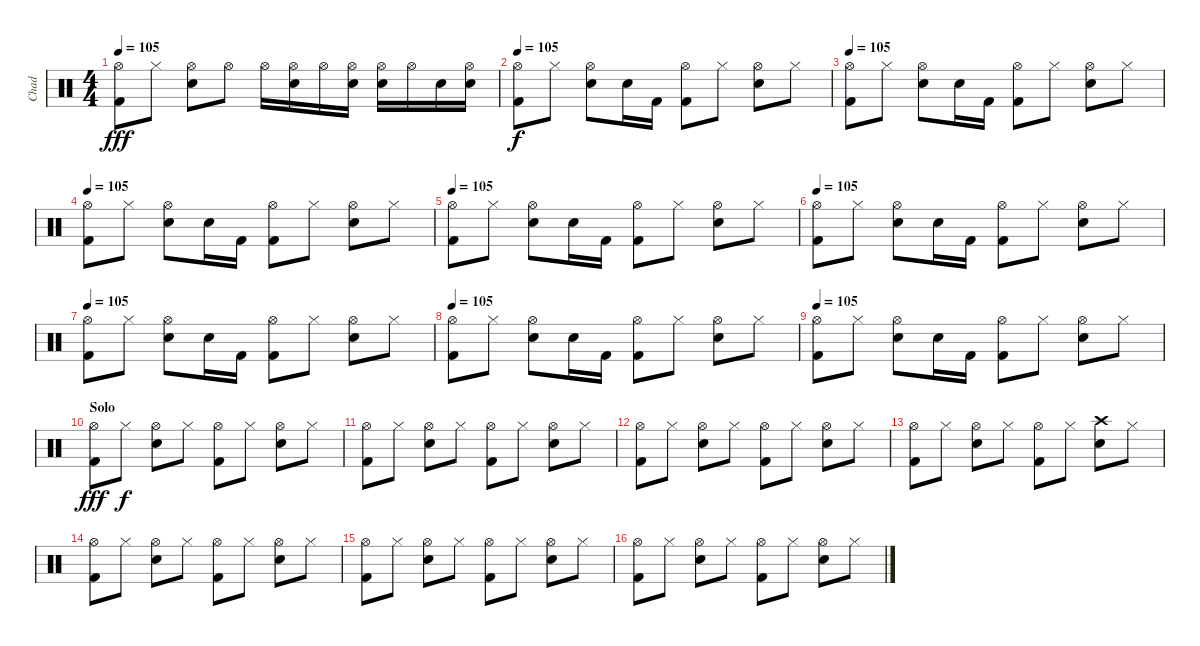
\track ("Chad" "Chad") {instrument percussion}
\staff {score}
\articulation defaults
\ts (4 4)
\tempo 105
\clef neutral
\ks c
("Hi-Hat (open)" "Kick (hit) 2").8{dy fff} "Hi-Hat (closed)".8 ("Hi-Hat (open)" "Electric Snare (hit)").8 "Hi-Hat (open)".8 "Hi-Hat (open)".16 ("Hi-Hat (open)" "Electric Snare (hit)").16 "Hi-Hat (open)".16 ("Hi-Hat (open)" "Electric Snare (hit)").16 ("Hi-Hat (open)" "Electric Snare (hit)").16 "Hi-Hat (open)".16 "Electric Snare (hit)".16 ("Hi-Hat (open)" "Electric Snare (hit)").16 |
\tempo 105
("Hi-Hat (open)" "Kick (hit) 2").8{dy f} "Hi-Hat (closed)".8 ("Hi-Hat (open)" "Electric Snare (hit)").8 "Electric Snare (hit)".16 "Kick (hit) 2".16 ("Hi-Hat (open)" "Kick (hit) 2").8 "Hi-Hat (closed)".8 ("Hi-Hat (open)" "Electric Snare (hit)").8 "Hi-Hat (closed)".8 |
\tempo 105
("Hi-Hat (open)" "Kick (hit) 2").8 "Hi-Hat (closed)".8 ("Hi-Hat (open)" "Electric Snare (hit)").8 "Electric Snare (hit)".16 "Kick (hit) 2".16 ("Hi-Hat (open)" "Kick (hit) 2").8 "Hi-Hat (closed)".8 ("Hi-Hat (open)" "Electric Snare (hit)").8 "Hi-Hat (closed)".8 |
\tempo 105
("Hi-Hat (open)" "Kick (hit) 2").8 "Hi-Hat (closed)".8 ("Hi-Hat (open)" "Electric Snare (hit)").8 "Electric Snare (hit)".16 "Kick (hit) 2".16 ("Hi-Hat (open)" "Kick (hit) 2").8 "Hi-Hat (closed)".8 ("Hi-Hat (open)" "Electric Snare (hit)").8 "Hi-Hat (closed)".8 |
\tempo 105
("Hi-Hat (open)" "Kick (hit) 2").8 "Hi-Hat (closed)".8 ("Hi-Hat (open)" "Electric Snare (hit)").8 "Electric Snare (hit)".16 "Kick (hit) 2".16 ("Hi-Hat (open)" "Kick (hit) 2").8 "Hi-Hat (closed)".8 ("Hi-Hat (open)" "Electric Snare (hit)").8 "Hi-Hat (closed)".8 |
\tempo 105
("Hi-Hat (open)" "Kick (hit) 2").8 "Hi-Hat (closed)".8 ("Hi-Hat (open)" "Electric Snare (hit)").8 "Electric Snare (hit)".16 "Kick (hit) 2".16 ("Hi-Hat (open)" "Kick (hit) 2").8 "Hi-Hat (closed)".8 ("Hi-Hat (open)" "Electric Snare (hit)").8 "Hi-Hat (closed)".8 |
\tempo 105
("Hi-Hat (open)" "Kick (hit) 2").8 "Hi-Hat (closed)".8 ("Hi-Hat (open)" "Electric Snare (hit)").8 "Electric Snare (hit)".16 "Kick (hit) 2".16 ("Hi-Hat (open)" "Kick (hit) 2").8 "Hi-Hat (closed)".8 ("Hi-Hat (open)" "Electric Snare (hit)").8 "Hi-Hat (closed)".8 |
\tempo 105
("Hi-Hat (open)" "Kick (hit) 2").8 "Hi-Hat (closed)".8 ("Hi-Hat (open)" "Electric Snare (hit)").8 "Electric Snare (hit)".16 "Kick (hit) 2".16 ("Hi-Hat (open)" "Kick (hit) 2").8 "Hi-Hat (closed)".8 ("Hi-Hat (open)" "Electric Snare (hit)").8 "Hi-Hat (closed)".8 |
\tempo 105
("Hi-Hat (open)" "Kick (hit) 2").8 "Hi-Hat (closed)".8 ("Hi-Hat (open)" "Electric Snare (hit)").8 "Electric Snare (hit)".16 "Kick (hit) 2".16 ("Hi-Hat (open)" "Kick (hit) 2").8 "Hi-Hat (closed)".8 ("Hi-Hat (open)" "Electric Snare (hit)").8 "Hi-Hat (closed)".8 |
\section ("" "Solo")
("Hi-Hat (open)" "Kick (hit) 2").8{dy fff} "Hi-Hat (closed)".8{dy f} ("Hi-Hat (open)" "Electric Snare (hit)").8 "Hi-Hat (closed)".8 ("Hi-Hat (open)" "Kick (hit) 2").8 "Hi-Hat (closed)".8 ("Hi-Hat (open)" "Electric Snare (hit)").8 "Hi-Hat (closed)".8 |
("Hi-Hat (open)" "Kick (hit) 2").8 "Hi-Hat (closed)".8 ("Hi-Hat (open)" "Electric Snare (hit)").8 "Hi-Hat (closed)".8 ("Hi-Hat (open)" "Kick (hit) 2").8 "Hi-Hat (closed)".8 ("Hi-Hat (open)" "Electric Snare (hit)").8 "Hi-Hat (closed)".8 |
("Hi-Hat (open)" "Kick (hit) 2").8 "Hi-Hat (closed)".8 ("Hi-Hat (open)" "Electric Snare (hit)").8 "Hi-Hat (closed)".8 ("Hi-Hat (open)" "Kick (hit) 2").8 "Hi-Hat (closed)".8 ("Hi-Hat (open)" "Electric Snare (hit)").8 "Hi-Hat (closed)".8 |
("Hi-Hat (open)" "Kick (hit) 2").8 "Hi-Hat (closed)".8 ("Hi-Hat (open)" "Electric Snare (hit)").8 "Hi-Hat (closed)".8 ("Hi-Hat (open)" "Kick (hit) 2").8 "Hi-Hat (closed)".8 ("Crash high (hit)" "Electric Snare (hit)").8 "Hi-Hat (closed)".8 |
("Hi-Hat (open)" "Kick (hit) 2").8 "Hi-Hat (closed)".8 ("Hi-Hat (open)" "Electric Snare (hit)").8 "Hi-Hat (closed)".8 ("Hi-Hat (open)" "Kick (hit) 2").8 "Hi-Hat (closed)".8 ("Hi-Hat (open)" "Electric Snare (hit)").8 "Hi-Hat (closed)".8 |
("Hi-Hat (open)" "Kick (hit) 2").8 "Hi-Hat (closed)".8 ("Hi-Hat (open)" "Electric Snare (hit)").8 "Hi-Hat (closed)".8 ("Hi-Hat (open)" "Kick (hit) 2").8 "Hi-Hat (closed)".8 ("Hi-Hat (open)" "Electric Snare (hit)").8 "Hi-Hat (closed)".8 |
("Hi-Hat (open)" "Kick (hit) 2").8 "Hi-Hat (closed)".8 ("Hi-Hat (open)" "Electric Snare (hit)").8 "Hi-Hat (closed)".8 ("Hi-Hat (open)" "Kick (hit) 2").8 "Hi-Hat (closed)".8 ("Hi-Hat (open)" "Electric Snare (hit)").8 "Hi-Hat (closed)".8
